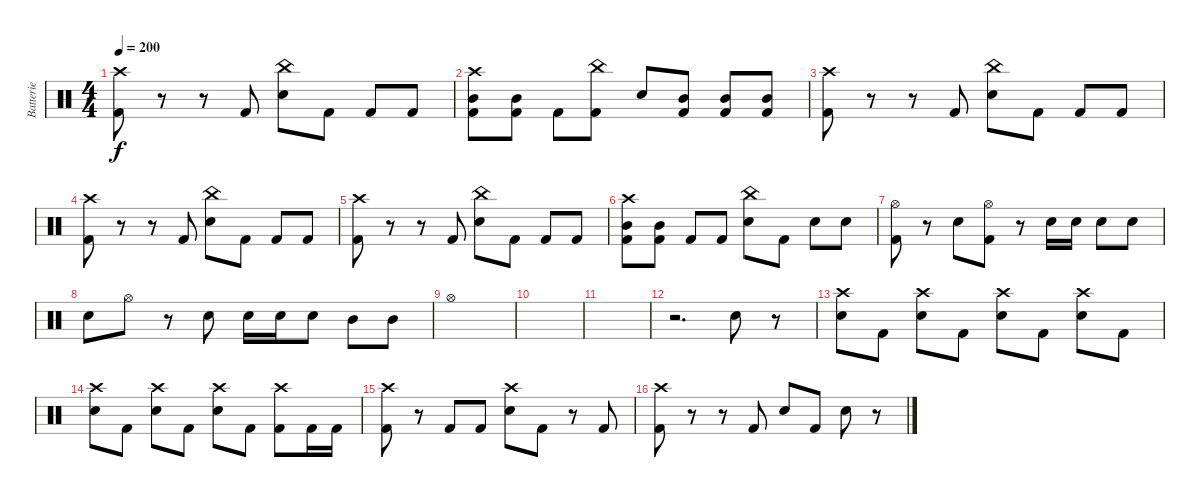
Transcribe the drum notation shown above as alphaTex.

\track ("Batterie" "Batterie") {instrument percussion}
\staff {score}
\articulation defaults
\ts (4 4)
\tempo 200
\clef neutral
\ks c
("Crash high (hit)" "Kick (hit) 2").8{dy f} r.8 r.8 "Kick (hit) 2".8 ("China (hit)" "Electric Snare (hit)").8 "Kick (hit) 2".8 "Kick (hit) 2".8 "Kick (hit) 2".8 |
("Crash high (hit)" "Mid Tom (hit)" "Kick (hit) 2").8 ("Mid Tom (hit)" "Kick (hit) 2").8 "Kick (hit) 2".8 ("China (hit)" "Kick (hit) 2").8 "Electric Snare (hit)".8 ("Mid Tom (hit)" "Kick (hit) 2").8 ("Mid Tom (hit)" "Kick (hit) 2").8 ("Mid Tom (hit)" "Kick (hit) 2").8 |
("Crash high (hit)" "Kick (hit) 2").8 r.8 r.8 "Kick (hit) 2".8 ("China (hit)" "Electric Snare (hit)").8 "Kick (hit) 2".8 "Kick (hit) 2".8 "Kick (hit) 2".8 |
("Crash high (hit)" "Kick (hit) 2").8 r.8 r.8 "Kick (hit) 2".8 ("China (hit)" "Electric Snare (hit)").8 "Kick (hit) 2".8 "Kick (hit) 2".8 "Kick (hit) 2".8 |
("Crash high (hit)" "Kick (hit) 2").8 r.8 r.8 "Kick (hit) 2".8 ("China (hit)" "Electric Snare (hit)").8 "Kick (hit) 2".8 "Kick (hit) 2".8 "Kick (hit) 2".8 |
("Crash high (hit)" "Mid Tom (hit)" "Kick (hit) 2").8 ("Mid Tom (hit)" "Kick (hit) 2").8 "Kick (hit) 2".8 "Kick (hit) 2".8 ("China (hit)" "Electric Snare (hit)").8 "Kick (hit) 2".8 "Electric Snare (hit)".8 "Electric Snare (hit)".8 |
("Hi-Hat (open)" "Kick (hit) 2").8 r.8 "Electric Snare (hit)".8 ("Hi-Hat (open)" "Kick (hit) 2").8 r.8 "Electric Snare (hit)".16 "Electric Snare (hit)".16 "Electric Snare (hit)".8 "Electric Snare (hit)".8 |
"Electric Snare (hit)".8 "Hi-Hat (open)".8 r.8 "Electric Snare (hit)".8 "Electric Snare (hit)".16 "Electric Snare (hit)".16 "Electric Snare (hit)".8 "Mid Tom (hit)".8 "Mid Tom (hit)".8 |
"Hi-Hat (open)".1 |
|
|
r.2{d} "Electric Snare (hit)".8 r.8 |
("Crash high (hit)" "Electric Snare (hit)").8 "Kick (hit) 2".8 ("Crash high (hit)" "Electric Snare (hit)").8 "Kick (hit) 2".8 ("Crash high (hit)" "Electric Snare (hit)").8 "Kick (hit) 2".8 ("Crash high (hit)" "Electric Snare (hit)").8 "Kick (hit) 2".8 |
("Crash high (hit)" "Electric Snare (hit)").8 "Kick (hit) 2".8 ("Crash high (hit)" "Electric Snare (hit)").8 "Kick (hit) 2".8 ("Crash high (hit)" "Electric Snare (hit)").8 "Kick (hit) 2".8 ("Crash high (hit)" "Kick (hit) 2").8 "Kick (hit) 2".16 "Kick (hit) 2".16 |
("Crash high (hit)" "Kick (hit) 2").8 r.8 "Kick (hit) 2".8 "Kick (hit) 2".8 ("Crash high (hit)" "Electric Snare (hit)").8 "Kick (hit) 2".8 r.8 "Kick (hit) 2".8 |
("Crash high (hit)" "Kick (hit) 2").8 r.8 r.8 "Kick (hit) 2".8 "Electric Snare (hit)".8 "Kick (hit) 2".8 "Electric Snare (hit)".8 r.8
